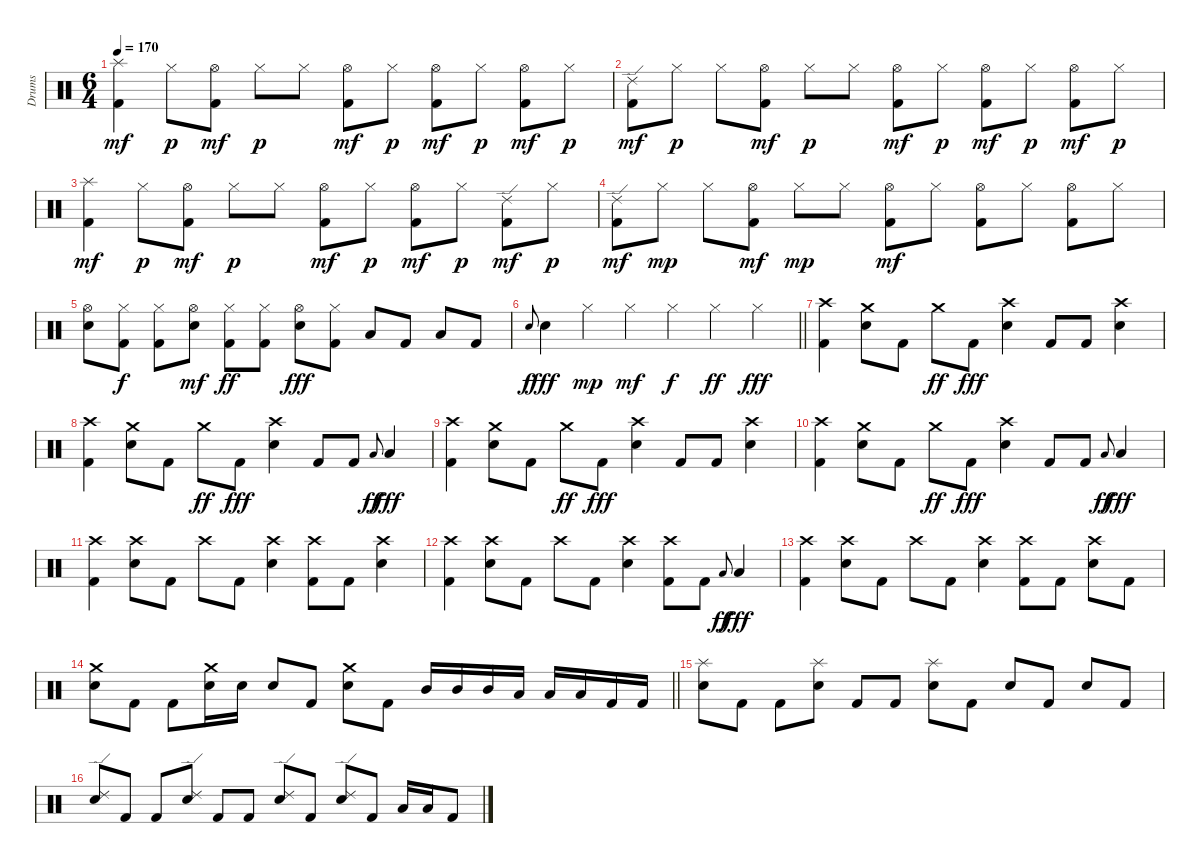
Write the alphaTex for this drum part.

\track ("Drums" "Drums") {instrument percussion}
\staff {score}
\articulation defaults
\ts (6 4)
\tempo 170
\clef neutral
\ks c
("Splash (hit)" "Kick (hit) 2").4{dy mf} "Hi-Hat (closed)".8{dy p} ("Hi-Hat (open)" "Kick (hit) 2").8{dy mf} "Hi-Hat (closed)".8{dy p} "Hi-Hat (closed)".8 ("Hi-Hat (open)" "Kick (hit) 2").8{dy mf} "Hi-Hat (closed)".8{dy p} ("Hi-Hat (open)" "Kick (hit) 2").8{dy mf} "Hi-Hat (closed)".8{dy p} ("Hi-Hat (open)" "Kick (hit) 2").8{dy mf} "Hi-Hat (closed)".8{dy p} |
("Ride (edge) 2" "Kick (hit) 2").8{dy mf} "Hi-Hat (closed)".8{dy p} "Hi-Hat (closed)".8 ("Hi-Hat (open)" "Kick (hit) 2").8{dy mf} "Hi-Hat (closed)".8{dy p} "Hi-Hat (closed)".8 ("Hi-Hat (open)" "Kick (hit) 2").8{dy mf} "Hi-Hat (closed)".8{dy p} ("Hi-Hat (open)" "Kick (hit) 2").8{dy mf} "Hi-Hat (closed)".8{dy p} ("Hi-Hat (open)" "Kick (hit) 2").8{dy mf} "Hi-Hat (closed)".8{dy p} |
("Splash (hit)" "Kick (hit) 2").4{dy mf} "Hi-Hat (closed)".8{dy p} ("Hi-Hat (open)" "Kick (hit) 2").8{dy mf} "Hi-Hat (closed)".8{dy p} "Hi-Hat (closed)".8 ("Hi-Hat (open)" "Kick (hit) 2").8{dy mf} "Hi-Hat (closed)".8{dy p} ("Hi-Hat (open)" "Kick (hit) 2").8{dy mf} "Hi-Hat (closed)".8{dy p} ("Ride (edge) 2" "Kick (hit) 2").8{dy mf} "Hi-Hat (closed)".8{dy p} |
("Ride (edge) 2" "Kick (hit) 2").8{dy mf} "Hi-Hat (closed)".8{dy mp} "Hi-Hat (closed)".8 ("Hi-Hat (open)" "Kick (hit) 2").8{dy mf} "Hi-Hat (closed)".8{dy mp} "Hi-Hat (closed)".8 ("Hi-Hat (open)" "Kick (hit) 2").8{dy mf} "Hi-Hat (closed)".8 ("Hi-Hat (open)" "Kick (hit) 2").8 "Hi-Hat (closed)".8 ("Hi-Hat (open)" "Kick (hit) 2").8 "Hi-Hat (closed)".8 |
("Hi-Hat (open)" "Snare (hit) 2").8 ("Hi-Hat (closed)" "Kick (hit) 2").8{dy f} ("Hi-Hat (closed)" "Kick (hit) 2").8 ("Hi-Hat (open)" "Snare (hit) 2").8{dy mf} ("Hi-Hat (closed)" "Kick (hit) 2").8{dy ff} ("Hi-Hat (closed)" "Kick (hit) 2").8 ("Hi-Hat (open)" "Snare (hit) 2").8{dy fff} ("Hi-Hat (closed)" "Kick (hit) 2").8 "Low Tom (hit)".8 "Kick (hit) 2".8 "Low Tom (hit)".8 "Kick (hit) 2".8 |
\barLineRight lightlight "Snare (hit) 2".8{gr onbeat dy f} "Snare (hit) 2".4{dy fff} "Hi-Hat (closed)".4{dy mp} "Hi-Hat (closed)".4{dy mf} "Hi-Hat (closed)".4{dy f} "Hi-Hat (closed)".4{dy ff} "Hi-Hat (closed)".4{dy fff}
|
\section ("" "")
("Crash high (hit)" "Kick (hit) 2").4 ("Crash medium (hit)" "Snare (hit) 2").8 "Kick (hit) 2".8 "Crash medium (hit)".8{dy ff} "Kick (hit) 2".8{dy fff} ("Crash high (hit)" "Snare (hit) 2").4 "Kick (hit) 2".8 "Kick (hit) 2".8 ("Crash high (hit)" "Snare (hit) 2").4 |
("Crash high (hit)" "Kick (hit) 2").4 ("Crash medium (hit)" "Snare (hit) 2").8 "Kick (hit) 2".8 "Crash medium (hit)".8{dy ff} "Kick (hit) 2".8{dy fff} ("Crash high (hit)" "Snare (hit) 2").4 "Kick (hit) 2".8 "Kick (hit) 2".8 "Low Tom (hit)".8{gr onbeat dy ff} "Low Tom (hit)".4{dy fff} |
("Crash high (hit)" "Kick (hit) 2").4 ("Crash medium (hit)" "Snare (hit) 2").8 "Kick (hit) 2".8 "Crash medium (hit)".8{dy ff} "Kick (hit) 2".8{dy fff} ("Crash high (hit)" "Snare (hit) 2").4 "Kick (hit) 2".8 "Kick (hit) 2".8 ("Crash high (hit)" "Snare (hit) 2").4 |
("Crash high (hit)" "Kick (hit) 2").4 ("Crash medium (hit)" "Snare (hit) 2").8 "Kick (hit) 2".8 "Crash medium (hit)".8{dy ff} "Kick (hit) 2".8{dy fff} ("Crash high (hit)" "Snare (hit) 2").4 "Kick (hit) 2".8 "Kick (hit) 2".8 "Low Tom (hit)".8{gr onbeat dy ff} "Low Tom (hit)".4{dy fff} |
("Crash high (hit)" "Kick (hit) 2").4 ("Crash high (hit)" "Snare (hit) 2").8 "Kick (hit) 2".8 "Crash high (hit)".8 "Kick (hit) 2".8 ("Crash high (hit)" "Snare (hit) 2").4 ("Crash high (hit)" "Kick (hit) 2").8 "Kick (hit) 2".8 ("Crash high (hit)" "Snare (hit) 2").4 |
("Crash high (hit)" "Kick (hit) 2").4 ("Crash high (hit)" "Snare (hit) 2").8 "Kick (hit) 2".8 "Crash high (hit)".8 "Kick (hit) 2".8 ("Crash high (hit)" "Snare (hit) 2").4 ("Crash high (hit)" "Kick (hit) 2").8 "Kick (hit) 2".8 "Low Tom (hit)".8{gr onbeat dy ff} "Low Tom (hit)".4{dy fff} |
("Crash high (hit)" "Kick (hit) 2").4 ("Crash high (hit)" "Snare (hit) 2").8 "Kick (hit) 2".8 "Crash high (hit)".8 "Kick (hit) 2".8 ("Crash high (hit)" "Snare (hit) 2").4 ("Crash high (hit)" "Kick (hit) 2").8 "Kick (hit) 2".8 ("Crash high (hit)" "Snare (hit) 2").8 "Kick (hit) 2".8 |
\barLineRight lightlight
("Crash medium (hit)" "Snare (hit) 2").8 "Kick (hit) 2".8 "Kick (hit) 2".8 ("Crash medium (hit)" "Snare (hit) 2").16 "Snare (hit) 2".16 "Snare (hit) 2".8 "Kick (hit) 2".8 ("Crash medium (hit)" "Snare (hit) 2").8 "Kick (hit) 2".8 "Mid Tom (hit)".16 "Mid Tom (hit)".16 "Mid Tom (hit)".16 "Low Tom (hit)".16 "Low Tom (hit)".16 "Low Tom (hit)".16 "Kick (hit) 2".16 "Kick (hit) 2".16 |
\section ("" "")
("Splash (hit)" "Snare (hit) 2").8 "Kick (hit) 2".8 "Kick (hit) 2".8 ("Splash (hit)" "Snare (hit) 2").8 "Kick (hit) 2".8 "Kick (hit) 2".8 ("Splash (hit)" "Snare (hit) 2").8 "Kick (hit) 2".8 "Snare (hit) 2".8 "Kick (hit) 2".8 "Snare (hit) 2".8 "Kick (hit) 2".8 |
("Ride (edge) 2" "Snare (hit) 2").8 "Kick (hit) 2".8 "Kick (hit) 2".8 ("Ride (edge) 2" "Snare (hit) 2").8 "Kick (hit) 2".8 "Kick (hit) 2".8 ("Ride (edge) 2" "Snare (hit) 2").8 "Kick (hit) 2".8 ("Ride (edge) 2" "Snare (hit) 2").8 "Kick (hit) 2".8 "Low Tom (hit)".16 "Low Tom (hit)".16 "Kick (hit) 2".8
